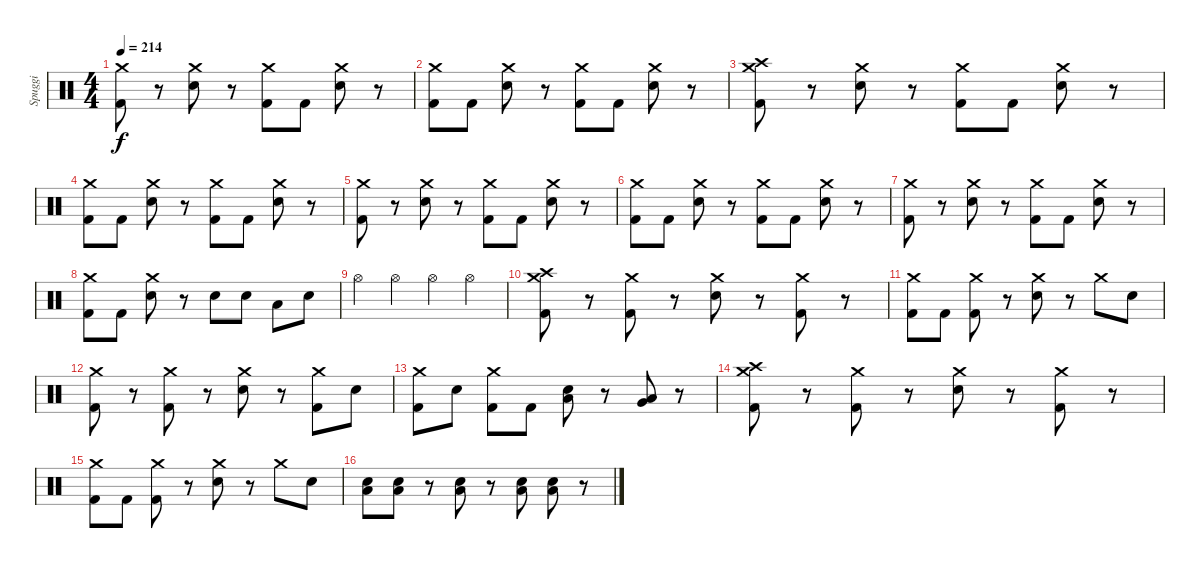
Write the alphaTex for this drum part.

\track ("Spuggi" "Spuggi") {instrument percussion}
\staff {score}
\articulation defaults
\ts (4 4)
\tempo 214
\clef neutral
\ks c
("Crash medium (hit)" "Kick (hit) 2").8{dy f} r.8 ("Crash medium (hit)" "Snare (hit) 2").8 r.8 ("Crash medium (hit)" "Kick (hit) 2").8 "Kick (hit) 2".8 ("Crash medium (hit)" "Snare (hit) 2").8 r.8 |
("Crash medium (hit)" "Kick (hit) 2").8 "Kick (hit) 2".8 ("Crash medium (hit)" "Snare (hit) 2").8 r.8 ("Crash medium (hit)" "Kick (hit) 2").8 "Kick (hit) 2".8 ("Crash medium (hit)" "Snare (hit) 2").8 r.8 |
("Crash high (hit)" "Crash medium (hit)" "Kick (hit) 2").8 r.8 ("Crash medium (hit)" "Snare (hit) 2").8 r.8 ("Crash medium (hit)" "Kick (hit) 2").8 "Kick (hit) 2".8 ("Crash medium (hit)" "Snare (hit) 2").8 r.8 |
("Crash medium (hit)" "Kick (hit) 2").8 "Kick (hit) 2".8 ("Crash medium (hit)" "Snare (hit) 2").8 r.8 ("Crash medium (hit)" "Kick (hit) 2").8 "Kick (hit) 2".8 ("Crash medium (hit)" "Snare (hit) 2").8 r.8 |
("Crash medium (hit)" "Kick (hit) 2").8 r.8 ("Crash medium (hit)" "Snare (hit) 2").8 r.8 ("Crash medium (hit)" "Kick (hit) 2").8 "Kick (hit) 2".8 ("Crash medium (hit)" "Snare (hit) 2").8 r.8 |
("Crash medium (hit)" "Kick (hit) 2").8 "Kick (hit) 2".8 ("Crash medium (hit)" "Snare (hit) 2").8 r.8 ("Crash medium (hit)" "Kick (hit) 2").8 "Kick (hit) 2".8 ("Crash medium (hit)" "Snare (hit) 2").8 r.8 |
("Crash medium (hit)" "Kick (hit) 2").8 r.8 ("Crash medium (hit)" "Snare (hit) 2").8 r.8 ("Crash medium (hit)" "Kick (hit) 2").8 "Kick (hit) 2".8 ("Crash medium (hit)" "Snare (hit) 2").8 r.8 |
("Crash medium (hit)" "Kick (hit) 2").8 "Kick (hit) 2".8 ("Crash medium (hit)" "Snare (hit) 2").8 r.8 "Snare (hit) 2".8 "Snare (hit) 2".8 "Low Floor Tom (hit)".8 "Snare (hit) 2".8 |
"Hi-Hat (open)".4 "Hi-Hat (open)".4 "Hi-Hat (open)".4 "Hi-Hat (open)".4 |
("Crash medium (hit)" "Crash high (hit)" "Kick (hit) 2").8 r.8 ("Crash medium (hit)" "Kick (hit) 2").8 r.8 ("Crash medium (hit)" "Snare (hit) 2").8 r.8 ("Crash medium (hit)" "Kick (hit) 2").8 r.8 |
("Crash medium (hit)" "Kick (hit) 2").8 "Kick (hit) 2".8 ("Crash medium (hit)" "Kick (hit) 2").8 r.8 ("Crash medium (hit)" "Snare (hit) 2").8 r.8 "Crash medium (hit)".8 "Snare (hit) 2".8 |
("Crash medium (hit)" "Kick (hit) 2").8 r.8 ("Crash medium (hit)" "Kick (hit) 2").8 r.8 ("Crash medium (hit)" "Snare (hit) 2").8 r.8 ("Crash medium (hit)" "Kick (hit) 2").8 "Snare (hit) 2".8 |
("Crash medium (hit)" "Kick (hit) 2").8 "Snare (hit) 2".8 ("Crash medium (hit)" "Kick (hit) 2").8 "Kick (hit) 2".8 ("Snare (hit) 2" "Low Floor Tom (hit)").8 r.8 ("Low Floor Tom (hit)" "Very Low Tom (hit)").8 r.8 |
("Crash medium (hit)" "Crash high (hit)" "Kick (hit) 2").8 r.8 ("Crash medium (hit)" "Kick (hit) 2").8 r.8 ("Crash medium (hit)" "Snare (hit) 2").8 r.8 ("Crash medium (hit)" "Kick (hit) 2").8 r.8 |
("Crash medium (hit)" "Kick (hit) 2").8 "Kick (hit) 2".8 ("Crash medium (hit)" "Kick (hit) 2").8 r.8 ("Crash medium (hit)" "Snare (hit) 2").8 r.8 "Crash medium (hit)".8 "Snare (hit) 2".8 |
("Low Floor Tom (hit)" "Snare (hit) 2").8 ("Low Floor Tom (hit)" "Snare (hit) 2").8 r.8 ("Low Floor Tom (hit)" "Snare (hit) 2").8 r.8 ("Low Floor Tom (hit)" "Snare (hit) 2").8 ("Low Floor Tom (hit)" "Snare (hit) 2").8 r.8
